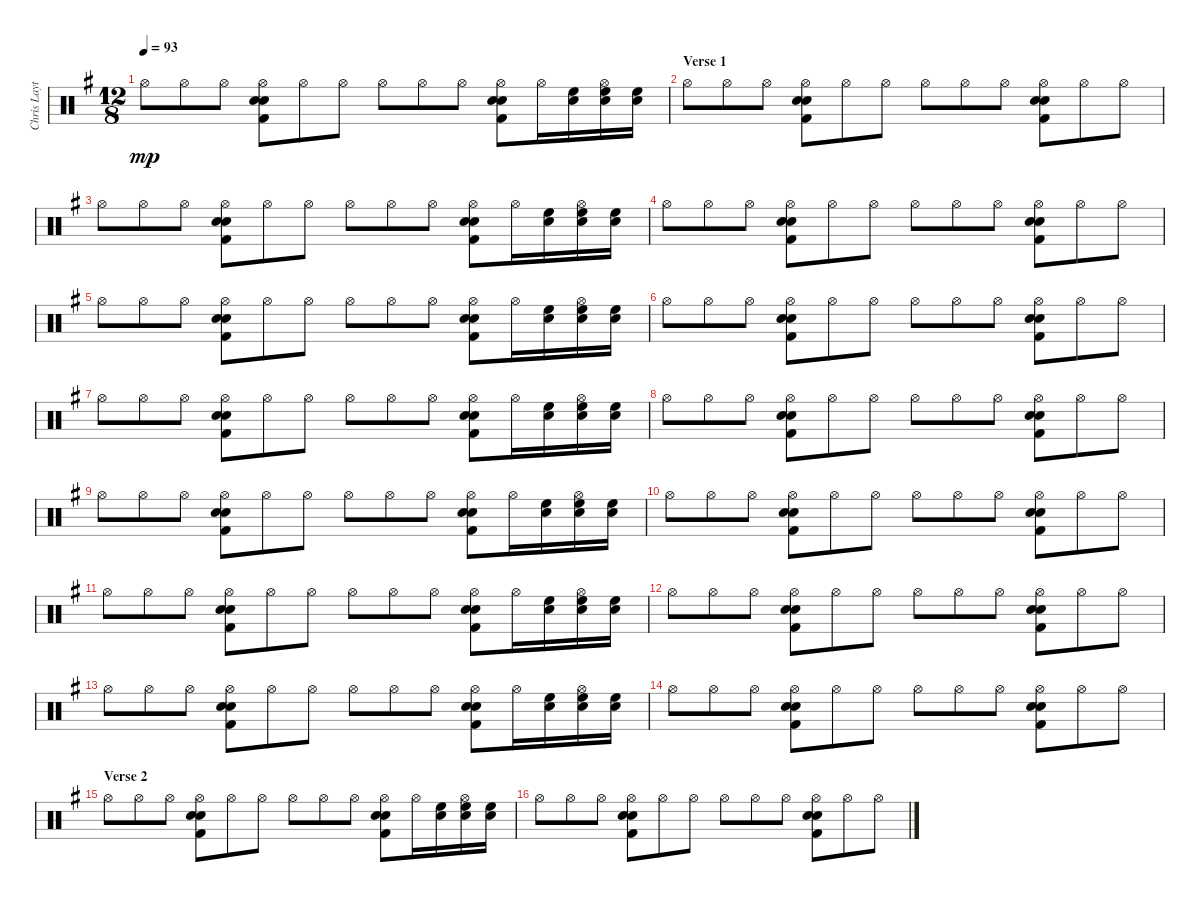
\track ("Chris Layton" "Chris Layt") {instrument percussion}
\staff {score}
\articulation defaults
\ts (12 8)
\tempo 93
\clef neutral
\ks g "Hi-Hat (open)".8{dy mp} "Hi-Hat (open)".8 "Hi-Hat (open)".8
("Electric Snare (hit)" "Electric Snare (hit)" "Kick (hit) 2" "Hi-Hat (open)").8 "Hi-Hat (open)".8 "Hi-Hat (open)".8 "Hi-Hat (open)".8 "Hi-Hat (open)".8 "Hi-Hat (open)".8 ("Kick (hit) 2" "Electric Snare (hit)" "Electric Snare (hit)" "Hi-Hat (open)").8 "Hi-Hat (open)".16 ("Electric Snare (hit)" "High Floor Tom (hit)").16 ("Electric Snare (hit)" "High Floor Tom (hit)" "Hi-Hat (open)").16 ("Electric Snare (hit)" "High Floor Tom (hit)").16 |
\section ("" "Verse 1")
"Hi-Hat (open)".8 "Hi-Hat (open)".8 "Hi-Hat (open)".8 ("Electric Snare (hit)" "Electric Snare (hit)" "Kick (hit) 2" "Hi-Hat (open)").8 "Hi-Hat (open)".8 "Hi-Hat (open)".8 "Hi-Hat (open)".8 "Hi-Hat (open)".8 "Hi-Hat (open)".8 ("Kick (hit) 2" "Electric Snare (hit)" "Electric Snare (hit)" "Hi-Hat (open)").8 "Hi-Hat (open)".8 "Hi-Hat (open)".8 |
"Hi-Hat (open)".8 "Hi-Hat (open)".8 "Hi-Hat (open)".8 ("Electric Snare (hit)" "Electric Snare (hit)" "Kick (hit) 2" "Hi-Hat (open)").8 "Hi-Hat (open)".8 "Hi-Hat (open)".8 "Hi-Hat (open)".8 "Hi-Hat (open)".8 "Hi-Hat (open)".8 ("Kick (hit) 2" "Electric Snare (hit)" "Electric Snare (hit)" "Hi-Hat (open)").8 "Hi-Hat (open)".16 ("Electric Snare (hit)" "High Floor Tom (hit)").16 ("Electric Snare (hit)" "High Floor Tom (hit)" "Hi-Hat (open)").16 ("Electric Snare (hit)" "High Floor Tom (hit)").16 |
"Hi-Hat (open)".8 "Hi-Hat (open)".8 "Hi-Hat (open)".8 ("Electric Snare (hit)" "Electric Snare (hit)" "Kick (hit) 2" "Hi-Hat (open)").8 "Hi-Hat (open)".8 "Hi-Hat (open)".8 "Hi-Hat (open)".8 "Hi-Hat (open)".8 "Hi-Hat (open)".8 ("Kick (hit) 2" "Electric Snare (hit)" "Electric Snare (hit)" "Hi-Hat (open)").8 "Hi-Hat (open)".8 "Hi-Hat (open)".8 |
"Hi-Hat (open)".8 "Hi-Hat (open)".8 "Hi-Hat (open)".8 ("Electric Snare (hit)" "Electric Snare (hit)" "Kick (hit) 2" "Hi-Hat (open)").8 "Hi-Hat (open)".8 "Hi-Hat (open)".8 "Hi-Hat (open)".8 "Hi-Hat (open)".8 "Hi-Hat (open)".8 ("Kick (hit) 2" "Electric Snare (hit)" "Electric Snare (hit)" "Hi-Hat (open)").8 "Hi-Hat (open)".16 ("Electric Snare (hit)" "High Floor Tom (hit)").16 ("Electric Snare (hit)" "High Floor Tom (hit)" "Hi-Hat (open)").16 ("Electric Snare (hit)" "High Floor Tom (hit)").16 |
"Hi-Hat (open)".8 "Hi-Hat (open)".8 "Hi-Hat (open)".8 ("Electric Snare (hit)" "Electric Snare (hit)" "Kick (hit) 2" "Hi-Hat (open)").8 "Hi-Hat (open)".8 "Hi-Hat (open)".8 "Hi-Hat (open)".8 "Hi-Hat (open)".8 "Hi-Hat (open)".8 ("Kick (hit) 2" "Electric Snare (hit)" "Electric Snare (hit)" "Hi-Hat (open)").8 "Hi-Hat (open)".8 "Hi-Hat (open)".8 |
"Hi-Hat (open)".8 "Hi-Hat (open)".8 "Hi-Hat (open)".8 ("Electric Snare (hit)" "Electric Snare (hit)" "Kick (hit) 2" "Hi-Hat (open)").8 "Hi-Hat (open)".8 "Hi-Hat (open)".8 "Hi-Hat (open)".8 "Hi-Hat (open)".8 "Hi-Hat (open)".8 ("Kick (hit) 2" "Electric Snare (hit)" "Electric Snare (hit)" "Hi-Hat (open)").8 "Hi-Hat (open)".16 ("Electric Snare (hit)" "High Floor Tom (hit)").16 ("Electric Snare (hit)" "High Floor Tom (hit)" "Hi-Hat (open)").16 ("Electric Snare (hit)" "High Floor Tom (hit)").16 |
"Hi-Hat (open)".8 "Hi-Hat (open)".8 "Hi-Hat (open)".8 ("Electric Snare (hit)" "Electric Snare (hit)" "Kick (hit) 2" "Hi-Hat (open)").8 "Hi-Hat (open)".8 "Hi-Hat (open)".8 "Hi-Hat (open)".8 "Hi-Hat (open)".8 "Hi-Hat (open)".8 ("Kick (hit) 2" "Electric Snare (hit)" "Electric Snare (hit)" "Hi-Hat (open)").8 "Hi-Hat (open)".8 "Hi-Hat (open)".8 |
"Hi-Hat (open)".8 "Hi-Hat (open)".8 "Hi-Hat (open)".8 ("Electric Snare (hit)" "Electric Snare (hit)" "Kick (hit) 2" "Hi-Hat (open)").8 "Hi-Hat (open)".8 "Hi-Hat (open)".8 "Hi-Hat (open)".8 "Hi-Hat (open)".8 "Hi-Hat (open)".8 ("Kick (hit) 2" "Electric Snare (hit)" "Electric Snare (hit)" "Hi-Hat (open)").8 "Hi-Hat (open)".16 ("Electric Snare (hit)" "High Floor Tom (hit)").16 ("Electric Snare (hit)" "High Floor Tom (hit)" "Hi-Hat (open)").16 ("Electric Snare (hit)" "High Floor Tom (hit)").16 |
"Hi-Hat (open)".8 "Hi-Hat (open)".8 "Hi-Hat (open)".8 ("Electric Snare (hit)" "Electric Snare (hit)" "Kick (hit) 2" "Hi-Hat (open)").8 "Hi-Hat (open)".8 "Hi-Hat (open)".8 "Hi-Hat (open)".8 "Hi-Hat (open)".8 "Hi-Hat (open)".8 ("Kick (hit) 2" "Electric Snare (hit)" "Electric Snare (hit)" "Hi-Hat (open)").8 "Hi-Hat (open)".8 "Hi-Hat (open)".8 |
"Hi-Hat (open)".8 "Hi-Hat (open)".8 "Hi-Hat (open)".8 ("Electric Snare (hit)" "Electric Snare (hit)" "Kick (hit) 2" "Hi-Hat (open)").8 "Hi-Hat (open)".8 "Hi-Hat (open)".8 "Hi-Hat (open)".8 "Hi-Hat (open)".8 "Hi-Hat (open)".8 ("Kick (hit) 2" "Electric Snare (hit)" "Electric Snare (hit)" "Hi-Hat (open)").8 "Hi-Hat (open)".16 ("Electric Snare (hit)" "High Floor Tom (hit)").16 ("Electric Snare (hit)" "High Floor Tom (hit)" "Hi-Hat (open)").16 ("Electric Snare (hit)" "High Floor Tom (hit)").16 |
"Hi-Hat (open)".8 "Hi-Hat (open)".8 "Hi-Hat (open)".8 ("Electric Snare (hit)" "Electric Snare (hit)" "Kick (hit) 2" "Hi-Hat (open)").8 "Hi-Hat (open)".8 "Hi-Hat (open)".8 "Hi-Hat (open)".8 "Hi-Hat (open)".8 "Hi-Hat (open)".8 ("Kick (hit) 2" "Electric Snare (hit)" "Electric Snare (hit)" "Hi-Hat (open)").8 "Hi-Hat (open)".8 "Hi-Hat (open)".8 |
"Hi-Hat (open)".8 "Hi-Hat (open)".8 "Hi-Hat (open)".8 ("Electric Snare (hit)" "Electric Snare (hit)" "Kick (hit) 2" "Hi-Hat (open)").8 "Hi-Hat (open)".8 "Hi-Hat (open)".8 "Hi-Hat (open)".8 "Hi-Hat (open)".8 "Hi-Hat (open)".8 ("Kick (hit) 2" "Electric Snare (hit)" "Electric Snare (hit)" "Hi-Hat (open)").8 "Hi-Hat (open)".16 ("Electric Snare (hit)" "High Floor Tom (hit)").16 ("Electric Snare (hit)" "High Floor Tom (hit)" "Hi-Hat (open)").16 ("Electric Snare (hit)" "High Floor Tom (hit)").16 |
"Hi-Hat (open)".8 "Hi-Hat (open)".8 "Hi-Hat (open)".8 ("Electric Snare (hit)" "Electric Snare (hit)" "Kick (hit) 2" "Hi-Hat (open)").8 "Hi-Hat (open)".8 "Hi-Hat (open)".8 "Hi-Hat (open)".8 "Hi-Hat (open)".8 "Hi-Hat (open)".8 ("Kick (hit) 2" "Electric Snare (hit)" "Electric Snare (hit)" "Hi-Hat (open)").8 "Hi-Hat (open)".8 "Hi-Hat (open)".8 |
\section ("" "Verse 2")
"Hi-Hat (open)".8 "Hi-Hat (open)".8 "Hi-Hat (open)".8 ("Electric Snare (hit)" "Electric Snare (hit)" "Kick (hit) 2" "Hi-Hat (open)").8 "Hi-Hat (open)".8 "Hi-Hat (open)".8 "Hi-Hat (open)".8 "Hi-Hat (open)".8 "Hi-Hat (open)".8 ("Kick (hit) 2" "Electric Snare (hit)" "Electric Snare (hit)" "Hi-Hat (open)").8 "Hi-Hat (open)".16 ("Electric Snare (hit)" "High Floor Tom (hit)").16 ("Electric Snare (hit)" "High Floor Tom (hit)" "Hi-Hat (open)").16 ("Electric Snare (hit)" "High Floor Tom (hit)").16 |
"Hi-Hat (open)".8 "Hi-Hat (open)".8 "Hi-Hat (open)".8 ("Electric Snare (hit)" "Electric Snare (hit)" "Kick (hit) 2" "Hi-Hat (open)").8 "Hi-Hat (open)".8 "Hi-Hat (open)".8 "Hi-Hat (open)".8 "Hi-Hat (open)".8 "Hi-Hat (open)".8 ("Kick (hit) 2" "Electric Snare (hit)" "Electric Snare (hit)" "Hi-Hat (open)").8 "Hi-Hat (open)".8 "Hi-Hat (open)".8
